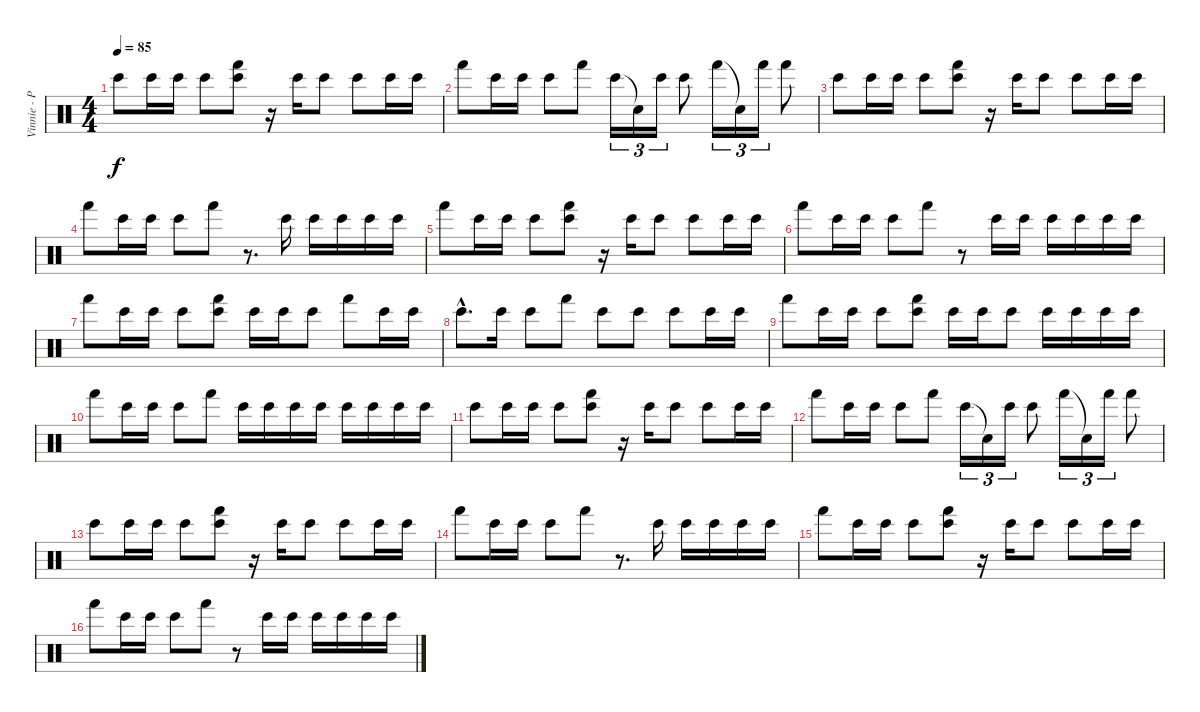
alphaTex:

\track ("Vinnie - Percusion" "Vinnie - P") {instrument percussion}
\staff {score}
\articulation defaults
\ts (4 4)
\tempo 85
\clef neutral
\ks c "Bongo High (hit)".8{dy f} "Bongo High (hit)".16 "Bongo High (hit)".16 "Bongo High (hit)".8
("Bongo High (hit)" "Hand (hit)").8 r.16 "Bongo High (hit)".16 "Bongo High (hit)".8 "Bongo High (hit)".8 "Bongo High (hit)".16 "Bongo High (hit)".16 |
"Hand (hit)".8 "Bongo High (hit)".16 "Bongo High (hit)".16 "Bongo High (hit)".8 "Hand (hit)".8 "Bongo High (hit)".16{tu (3 2)} "Snare (hit)"{t}.16{tu (3 2)} "Bongo High (hit)".16{tu (3 2)} "Bongo High (hit)".8 "Hand (hit)".16{tu (3 2)} "Snare (hit)"{t}.16{tu (3 2)} "Hand (hit)".16{tu (3 2)} "Hand (hit)".8 |
"Bongo High (hit)".8 "Bongo High (hit)".16 "Bongo High (hit)".16 "Bongo High (hit)".8 ("Bongo High (hit)" "Hand (hit)").8 r.16 "Bongo High (hit)".16 "Bongo High (hit)".8 "Bongo High (hit)".8 "Bongo High (hit)".16 "Bongo High (hit)".16 |
"Hand (hit)".8 "Bongo High (hit)".16 "Bongo High (hit)".16 "Bongo High (hit)".8 "Hand (hit)".8 r.8{d} "Bongo High (hit)".16 "Bongo High (hit)".16 "Bongo High (hit)".16 "Bongo High (hit)".16 "Bongo High (hit)".16 |
"Hand (hit)".8 "Bongo High (hit)".16 "Bongo High (hit)".16 "Bongo High (hit)".8 ("Bongo High (hit)" "Hand (hit)").8 r.16 "Bongo High (hit)".16 "Bongo High (hit)".8 "Bongo High (hit)".8 "Bongo High (hit)".16 "Bongo High (hit)".16 |
"Hand (hit)".8 "Bongo High (hit)".16 "Bongo High (hit)".16 "Bongo High (hit)".8 "Hand (hit)".8 r.8 "Bongo High (hit)".16 "Bongo High (hit)".16 "Bongo High (hit)".16 "Bongo High (hit)".16 "Bongo High (hit)".16 "Bongo High (hit)".16 |
"Hand (hit)".8 "Bongo High (hit)".16 "Bongo High (hit)".16 "Bongo High (hit)".8 ("Bongo High (hit)" "Hand (hit)").8 "Bongo High (hit)".16 "Bongo High (hit)".16 "Bongo High (hit)".8 "Hand (hit)".8 "Bongo High (hit)".16 "Bongo High (hit)".16 |
"Bongo High (hit)"{hac}.8{d} "Bongo High (hit)".16 "Bongo High (hit)".8 "Hand (hit)".8 "Bongo High (hit)".8 "Bongo High (hit)".8 "Bongo High (hit)".8 "Bongo High (hit)".16 "Bongo High (hit)".16 |
"Hand (hit)".8 "Bongo High (hit)".16 "Bongo High (hit)".16 "Bongo High (hit)".8 ("Bongo High (hit)" "Hand (hit)").8 "Bongo High (hit)".16 "Bongo High (hit)".16 "Bongo High (hit)".8 "Bongo High (hit)".16 "Bongo High (hit)".16 "Bongo High (hit)".16 "Bongo High (hit)".16 |
"Hand (hit)".8 "Bongo High (hit)".16 "Bongo High (hit)".16 "Bongo High (hit)".8 "Hand (hit)".8 "Bongo High (hit)".16 "Bongo High (hit)".16 "Bongo High (hit)".16 "Bongo High (hit)".16 "Bongo High (hit)".16 "Bongo High (hit)".16 "Bongo High (hit)".16 "Bongo High (hit)".16 |
"Bongo High (hit)".8 "Bongo High (hit)".16 "Bongo High (hit)".16 "Bongo High (hit)".8 ("Bongo High (hit)" "Hand (hit)").8 r.16 "Bongo High (hit)".16 "Bongo High (hit)".8 "Bongo High (hit)".8 "Bongo High (hit)".16 "Bongo High (hit)".16 |
"Hand (hit)".8 "Bongo High (hit)".16 "Bongo High (hit)".16 "Bongo High (hit)".8 "Hand (hit)".8 "Bongo High (hit)".16{tu (3 2)} "Snare (hit)"{t}.16{tu (3 2)} "Bongo High (hit)".16{tu (3 2)} "Bongo High (hit)".8 "Hand (hit)".16{tu (3 2)} "Snare (hit)"{t}.16{tu (3 2)} "Hand (hit)".16{tu (3 2)} "Hand (hit)".8 |
"Bongo High (hit)".8 "Bongo High (hit)".16 "Bongo High (hit)".16 "Bongo High (hit)".8 ("Bongo High (hit)" "Hand (hit)").8 r.16 "Bongo High (hit)".16 "Bongo High (hit)".8 "Bongo High (hit)".8 "Bongo High (hit)".16 "Bongo High (hit)".16 |
"Hand (hit)".8 "Bongo High (hit)".16 "Bongo High (hit)".16 "Bongo High (hit)".8 "Hand (hit)".8 r.8{d} "Bongo High (hit)".16 "Bongo High (hit)".16 "Bongo High (hit)".16 "Bongo High (hit)".16 "Bongo High (hit)".16 |
"Hand (hit)".8 "Bongo High (hit)".16 "Bongo High (hit)".16 "Bongo High (hit)".8 ("Bongo High (hit)" "Hand (hit)").8 r.16 "Bongo High (hit)".16 "Bongo High (hit)".8 "Bongo High (hit)".8 "Bongo High (hit)".16 "Bongo High (hit)".16 |
"Hand (hit)".8 "Bongo High (hit)".16 "Bongo High (hit)".16 "Bongo High (hit)".8 "Hand (hit)".8 r.8 "Bongo High (hit)".16 "Bongo High (hit)".16 "Bongo High (hit)".16 "Bongo High (hit)".16 "Bongo High (hit)".16 "Bongo High (hit)".16
